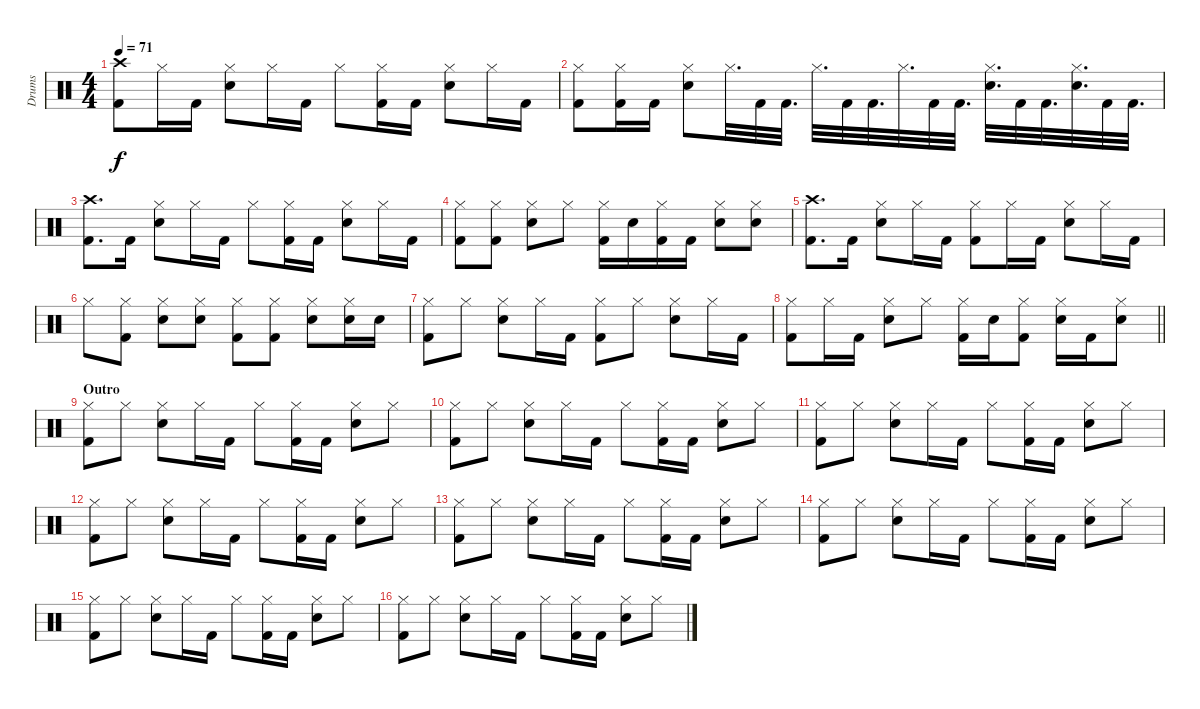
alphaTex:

\track ("Drums" "Drums") {instrument percussion}
\staff {score}
\articulation defaults
\ts (4 4)
\tempo 71
\clef neutral
\ks c
("Crash high (hit)" "Kick (hit) 2").8{dy f} "Hi-Hat (closed)".16 "Kick (hit) 2".16 ("Hi-Hat (closed)" "Snare (hit) 2").8 "Hi-Hat (closed)".16 "Kick (hit) 2".16 "Hi-Hat (closed)".8 ("Hi-Hat (closed)" "Kick (hit) 2").16 "Kick (hit) 2".16 ("Hi-Hat (closed)" "Snare (hit) 2").8 "Hi-Hat (closed)".16 "Kick (hit) 2".16 |
("Hi-Hat (closed)" "Kick (hit) 2").8 ("Hi-Hat (closed)" "Kick (hit) 2").16 "Kick (hit) 2".16 ("Hi-Hat (closed)" "Snare (hit) 2").8 "Hi-Hat (closed)".32{d} "Kick (hit) 2".32 "Kick (hit) 2".32{d} "Hi-Hat (closed)".32{d} "Kick (hit) 2".32 "Kick (hit) 2".32{d} "Hi-Hat (closed)".32{d} "Kick (hit) 2".32 "Kick (hit) 2".32{d} ("Snare (hit) 2" "Hi-Hat (closed)").32{d} "Kick (hit) 2".32 "Kick (hit) 2".32{d} ("Snare (hit) 2" "Hi-Hat (closed)").32{d} "Kick (hit) 2".32 "Kick (hit) 2".32{d} |
("Crash high (hit)" "Kick (hit) 2").8{d} "Kick (hit) 2".16 ("Hi-Hat (closed)" "Snare (hit) 2").8 "Hi-Hat (closed)".16 "Kick (hit) 2".16 "Hi-Hat (closed)".8 ("Hi-Hat (closed)" "Kick (hit) 2").16 "Kick (hit) 2".16 ("Hi-Hat (closed)" "Snare (hit) 2").8 "Hi-Hat (closed)".16 "Kick (hit) 2".16 |
("Kick (hit) 2" "Hi-Hat (closed)").8 ("Kick (hit) 2" "Hi-Hat (closed)").8 ("Hi-Hat (closed)" "Snare (hit) 2").8 "Hi-Hat (closed)".8 ("Hi-Hat (closed)" "Kick (hit) 2").16 "Snare (hit) 2".16 ("Kick (hit) 2" "Hi-Hat (closed)").16 "Kick (hit) 2".16 ("Hi-Hat (closed)" "Snare (hit) 2").8 ("Hi-Hat (closed)" "Snare (hit) 2").8 |
("Crash high (hit)" "Kick (hit) 2").8{d} "Kick (hit) 2".16 ("Snare (hit) 2" "Hi-Hat (closed)").8 "Hi-Hat (closed)".16 "Kick (hit) 2".16 ("Hi-Hat (closed)" "Kick (hit) 2").8 "Hi-Hat (closed)".16 "Kick (hit) 2".16 ("Snare (hit) 2" "Hi-Hat (closed)").8 "Hi-Hat (closed)".16 "Kick (hit) 2".16 |
"Hi-Hat (closed)".8 ("Kick (hit) 2" "Hi-Hat (closed)").8 ("Snare (hit) 2" "Hi-Hat (closed)").8 ("Snare (hit) 2" "Hi-Hat (closed)").8 ("Kick (hit) 2" "Hi-Hat (closed)").8 ("Kick (hit) 2" "Hi-Hat (closed)").8 ("Hi-Hat (closed)" "Snare (hit) 2").8 ("Hi-Hat (closed)" "Snare (hit) 2").16 "Snare (hit) 2".16 |
("Kick (hit) 2" "Hi-Hat (closed)").8 "Hi-Hat (closed)".8 ("Snare (hit) 2" "Hi-Hat (closed)").8 "Hi-Hat (closed)".16 "Kick (hit) 2".16 ("Kick (hit) 2" "Hi-Hat (closed)").8 "Hi-Hat (closed)".8 ("Snare (hit) 2" "Hi-Hat (closed)").8 "Hi-Hat (closed)".16 "Kick (hit) 2".16 |
\barLineRight lightlight
("Hi-Hat (closed)" "Kick (hit) 2").8 "Hi-Hat (closed)".16 "Kick (hit) 2".16 ("Snare (hit) 2" "Hi-Hat (closed)").8 "Hi-Hat (closed)".8 ("Hi-Hat (closed)" "Kick (hit) 2").16 "Snare (hit) 2".16 ("Hi-Hat (closed)" "Kick (hit) 2").8 ("Snare (hit) 2" "Hi-Hat (closed)").16 "Kick (hit) 2".16 ("Snare (hit) 2" "Hi-Hat (closed)").8 |
\section ("" "Outro")
("Hi-Hat (closed)" "Kick (hit) 2").8 "Hi-Hat (closed)".8 ("Hi-Hat (closed)" "Snare (hit) 2").8 "Hi-Hat (closed)".16 "Kick (hit) 2".16 "Hi-Hat (closed)".8 ("Hi-Hat (closed)" "Kick (hit) 2").16 "Kick (hit) 2".16 ("Hi-Hat (closed)" "Snare (hit) 2").8 "Hi-Hat (closed)".8 |
("Hi-Hat (closed)" "Kick (hit) 2").8 "Hi-Hat (closed)".8 ("Hi-Hat (closed)" "Snare (hit) 2").8 "Hi-Hat (closed)".16 "Kick (hit) 2".16 "Hi-Hat (closed)".8 ("Hi-Hat (closed)" "Kick (hit) 2").16 "Kick (hit) 2".16 ("Hi-Hat (closed)" "Snare (hit) 2").8 "Hi-Hat (closed)".8 |
("Hi-Hat (closed)" "Kick (hit) 2").8 "Hi-Hat (closed)".8 ("Hi-Hat (closed)" "Snare (hit) 2").8 "Hi-Hat (closed)".16 "Kick (hit) 2".16 "Hi-Hat (closed)".8 ("Hi-Hat (closed)" "Kick (hit) 2").16 "Kick (hit) 2".16 ("Hi-Hat (closed)" "Snare (hit) 2").8 "Hi-Hat (closed)".8 |
("Hi-Hat (closed)" "Kick (hit) 2").8 "Hi-Hat (closed)".8 ("Hi-Hat (closed)" "Snare (hit) 2").8 "Hi-Hat (closed)".16 "Kick (hit) 2".16 "Hi-Hat (closed)".8 ("Hi-Hat (closed)" "Kick (hit) 2").16 "Kick (hit) 2".16 ("Hi-Hat (closed)" "Snare (hit) 2").8 "Hi-Hat (closed)".8 |
("Hi-Hat (closed)" "Kick (hit) 2").8 "Hi-Hat (closed)".8 ("Hi-Hat (closed)" "Snare (hit) 2").8 "Hi-Hat (closed)".16 "Kick (hit) 2".16 "Hi-Hat (closed)".8 ("Hi-Hat (closed)" "Kick (hit) 2").16 "Kick (hit) 2".16 ("Hi-Hat (closed)" "Snare (hit) 2").8 "Hi-Hat (closed)".8 |
("Hi-Hat (closed)" "Kick (hit) 2").8 "Hi-Hat (closed)".8 ("Hi-Hat (closed)" "Snare (hit) 2").8 "Hi-Hat (closed)".16 "Kick (hit) 2".16 "Hi-Hat (closed)".8 ("Hi-Hat (closed)" "Kick (hit) 2").16 "Kick (hit) 2".16 ("Hi-Hat (closed)" "Snare (hit) 2").8 "Hi-Hat (closed)".8 |
("Hi-Hat (closed)" "Kick (hit) 2").8 "Hi-Hat (closed)".8 ("Hi-Hat (closed)" "Snare (hit) 2").8 "Hi-Hat (closed)".16 "Kick (hit) 2".16 "Hi-Hat (closed)".8 ("Hi-Hat (closed)" "Kick (hit) 2").16 "Kick (hit) 2".16 ("Hi-Hat (closed)" "Snare (hit) 2").8 "Hi-Hat (closed)".8 |
("Hi-Hat (closed)" "Kick (hit) 2").8 "Hi-Hat (closed)".8 ("Hi-Hat (closed)" "Snare (hit) 2").8 "Hi-Hat (closed)".16 "Kick (hit) 2".16 "Hi-Hat (closed)".8 ("Hi-Hat (closed)" "Kick (hit) 2").16 "Kick (hit) 2".16 ("Hi-Hat (closed)" "Snare (hit) 2").8 "Hi-Hat (closed)".8
